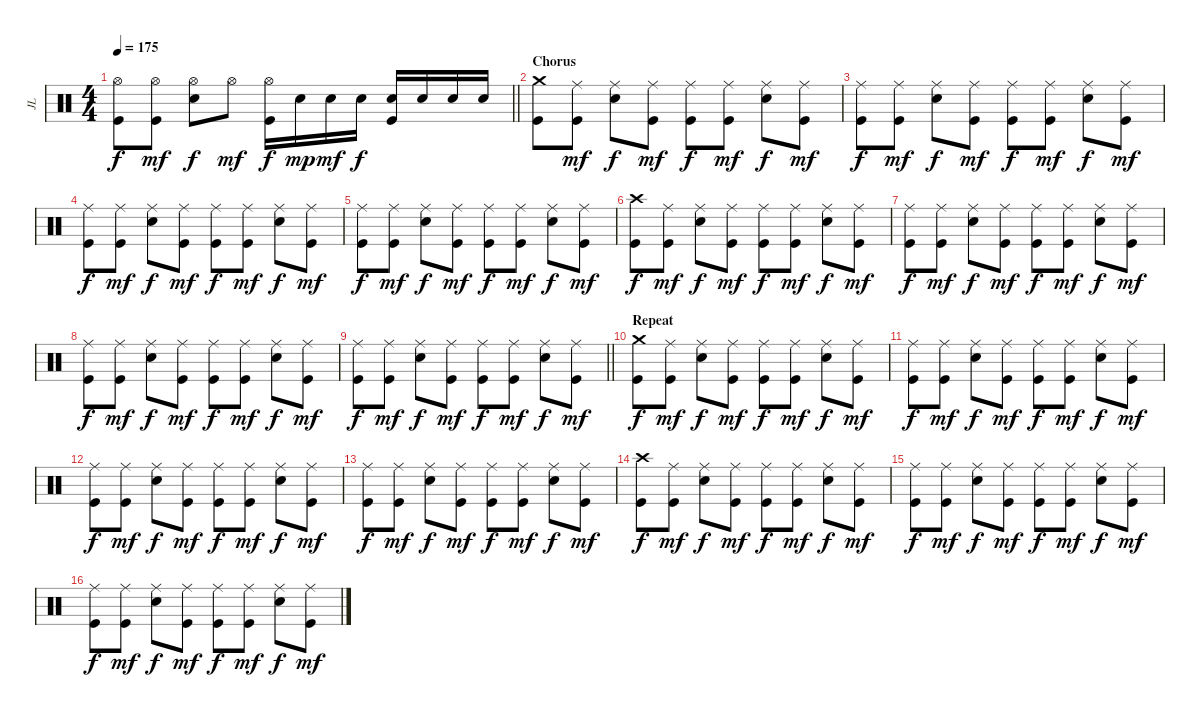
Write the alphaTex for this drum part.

\track ("JL" "JL") {instrument percussion}
\staff {score}
\articulation defaults
\ts (4 4)
\tempo 175
\clef neutral
\barLineRight lightlight
\ks c
("Hi-Hat (open)" "Kick (hit)").8{dy f} ("Hi-Hat (open)" "Kick (hit)").8{dy mf} ("Hi-Hat (open)" "Electric Snare (hit)").8{dy f} "Hi-Hat (open)".8{dy mf} ("Hi-Hat (open)" "Kick (hit)").16{dy f} "Electric Snare (hit)".16{dy mp} "Electric Snare (hit)".16{dy mf} "Electric Snare (hit)".16{dy f} ("Electric Snare (hit)" "Kick (hit)").16 "Electric Snare (hit)".16 "Electric Snare (hit)".16 "Electric Snare (hit)".16 |
\section ("" "Chorus")
("Crash medium (hit)" "Kick (hit)").8 ("Ride (middle)" "Kick (hit)").8{dy mf} ("Ride (middle)" "Electric Snare (hit)").8{dy f} ("Ride (middle)" "Kick (hit)").8{dy mf} ("Ride (middle)" "Kick (hit)").8{dy f} ("Ride (middle)" "Kick (hit)").8{dy mf} ("Ride (middle)" "Electric Snare (hit)").8{dy f} ("Ride (middle)" "Kick (hit)").8{dy mf} |
("Ride (middle)" "Kick (hit)").8{dy f} ("Ride (middle)" "Kick (hit)").8{dy mf} ("Ride (middle)" "Electric Snare (hit)").8{dy f} ("Ride (middle)" "Kick (hit)").8{dy mf} ("Ride (middle)" "Kick (hit)").8{dy f} ("Ride (middle)" "Kick (hit)").8{dy mf} ("Ride (middle)" "Electric Snare (hit)").8{dy f} ("Ride (middle)" "Kick (hit)").8{dy mf} |
("Ride (middle)" "Kick (hit)").8{dy f} ("Ride (middle)" "Kick (hit)").8{dy mf} ("Ride (middle)" "Electric Snare (hit)").8{dy f} ("Ride (middle)" "Kick (hit)").8{dy mf} ("Ride (middle)" "Kick (hit)").8{dy f} ("Ride (middle)" "Kick (hit)").8{dy mf} ("Ride (middle)" "Electric Snare (hit)").8{dy f} ("Ride (middle)" "Kick (hit)").8{dy mf} |
("Ride (middle)" "Kick (hit)").8{dy f} ("Ride (middle)" "Kick (hit)").8{dy mf} ("Ride (middle)" "Electric Snare (hit)").8{dy f} ("Ride (middle)" "Kick (hit)").8{dy mf} ("Ride (middle)" "Kick (hit)").8{dy f} ("Ride (middle)" "Kick (hit)").8{dy mf} ("Ride (middle)" "Electric Snare (hit)").8{dy f} ("Ride (middle)" "Kick (hit)").8{dy mf} |
("Crash high (hit)" "Kick (hit)").8{dy f} ("Ride (middle)" "Kick (hit)").8{dy mf} ("Ride (middle)" "Electric Snare (hit)").8{dy f} ("Ride (middle)" "Kick (hit)").8{dy mf} ("Ride (middle)" "Kick (hit)").8{dy f} ("Ride (middle)" "Kick (hit)").8{dy mf} ("Ride (middle)" "Electric Snare (hit)").8{dy f} ("Ride (middle)" "Kick (hit)").8{dy mf} |
("Ride (middle)" "Kick (hit)").8{dy f} ("Ride (middle)" "Kick (hit)").8{dy mf} ("Ride (middle)" "Electric Snare (hit)").8{dy f} ("Ride (middle)" "Kick (hit)").8{dy mf} ("Ride (middle)" "Kick (hit)").8{dy f} ("Ride (middle)" "Kick (hit)").8{dy mf} ("Ride (middle)" "Electric Snare (hit)").8{dy f} ("Ride (middle)" "Kick (hit)").8{dy mf} |
("Ride (middle)" "Kick (hit)").8{dy f} ("Ride (middle)" "Kick (hit)").8{dy mf} ("Ride (middle)" "Electric Snare (hit)").8{dy f} ("Ride (middle)" "Kick (hit)").8{dy mf} ("Ride (middle)" "Kick (hit)").8{dy f} ("Ride (middle)" "Kick (hit)").8{dy mf} ("Ride (middle)" "Electric Snare (hit)").8{dy f} ("Ride (middle)" "Kick (hit)").8{dy mf} |
\barLineRight lightlight
("Ride (middle)" "Kick (hit)").8{dy f} ("Ride (middle)" "Kick (hit)").8{dy mf} ("Ride (middle)" "Electric Snare (hit)").8{dy f} ("Ride (middle)" "Kick (hit)").8{dy mf} ("Ride (middle)" "Kick (hit)").8{dy f} ("Ride (middle)" "Kick (hit)").8{dy mf} ("Ride (middle)" "Electric Snare (hit)").8{dy f} ("Ride (middle)" "Kick (hit)").8{dy mf} |
\section ("" "Repeat")
("Crash medium (hit)" "Kick (hit)").8{dy f} ("Ride (middle)" "Kick (hit)").8{dy mf} ("Ride (middle)" "Electric Snare (hit)").8{dy f} ("Ride (middle)" "Kick (hit)").8{dy mf} ("Ride (middle)" "Kick (hit)").8{dy f} ("Ride (middle)" "Kick (hit)").8{dy mf} ("Ride (middle)" "Electric Snare (hit)").8{dy f} ("Ride (middle)" "Kick (hit)").8{dy mf} |
("Ride (middle)" "Kick (hit)").8{dy f} ("Ride (middle)" "Kick (hit)").8{dy mf} ("Ride (middle)" "Electric Snare (hit)").8{dy f} ("Ride (middle)" "Kick (hit)").8{dy mf} ("Ride (middle)" "Kick (hit)").8{dy f} ("Ride (middle)" "Kick (hit)").8{dy mf} ("Ride (middle)" "Electric Snare (hit)").8{dy f} ("Ride (middle)" "Kick (hit)").8{dy mf} |
("Ride (middle)" "Kick (hit)").8{dy f} ("Ride (middle)" "Kick (hit)").8{dy mf} ("Ride (middle)" "Electric Snare (hit)").8{dy f} ("Ride (middle)" "Kick (hit)").8{dy mf} ("Ride (middle)" "Kick (hit)").8{dy f} ("Ride (middle)" "Kick (hit)").8{dy mf} ("Ride (middle)" "Electric Snare (hit)").8{dy f} ("Ride (middle)" "Kick (hit)").8{dy mf} |
("Ride (middle)" "Kick (hit)").8{dy f} ("Ride (middle)" "Kick (hit)").8{dy mf} ("Ride (middle)" "Electric Snare (hit)").8{dy f} ("Ride (middle)" "Kick (hit)").8{dy mf} ("Ride (middle)" "Kick (hit)").8{dy f} ("Ride (middle)" "Kick (hit)").8{dy mf} ("Ride (middle)" "Electric Snare (hit)").8{dy f} ("Ride (middle)" "Kick (hit)").8{dy mf} |
("Crash high (hit)" "Kick (hit)").8{dy f} ("Ride (middle)" "Kick (hit)").8{dy mf} ("Ride (middle)" "Electric Snare (hit)").8{dy f} ("Ride (middle)" "Kick (hit)").8{dy mf} ("Ride (middle)" "Kick (hit)").8{dy f} ("Ride (middle)" "Kick (hit)").8{dy mf} ("Ride (middle)" "Electric Snare (hit)").8{dy f} ("Ride (middle)" "Kick (hit)").8{dy mf} |
("Ride (middle)" "Kick (hit)").8{dy f} ("Ride (middle)" "Kick (hit)").8{dy mf} ("Ride (middle)" "Electric Snare (hit)").8{dy f} ("Ride (middle)" "Kick (hit)").8{dy mf} ("Ride (middle)" "Kick (hit)").8{dy f} ("Ride (middle)" "Kick (hit)").8{dy mf} ("Ride (middle)" "Electric Snare (hit)").8{dy f} ("Ride (middle)" "Kick (hit)").8{dy mf} |
("Ride (middle)" "Kick (hit)").8{dy f} ("Ride (middle)" "Kick (hit)").8{dy mf} ("Ride (middle)" "Electric Snare (hit)").8{dy f} ("Ride (middle)" "Kick (hit)").8{dy mf} ("Ride (middle)" "Kick (hit)").8{dy f} ("Ride (middle)" "Kick (hit)").8{dy mf} ("Ride (middle)" "Electric Snare (hit)").8{dy f} ("Ride (middle)" "Kick (hit)").8{dy mf}
